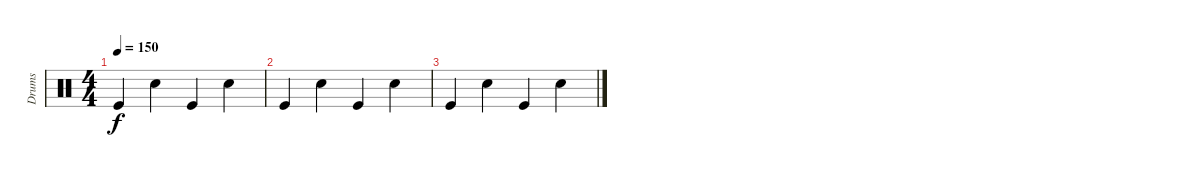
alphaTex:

\track ("Drums" "Drums") {instrument percussion}
\staff {score}
\articulation defaults
\ts (4 4)
\tempo 150
\clef neutral
\ks c "Kick (hit)".4{dy f} "Snare (hit) 2".4 "Kick (hit)".4 "Snare (hit) 2".4
|
"Kick (hit)".4 "Snare (hit) 2".4 "Kick (hit)".4 "Snare (hit) 2".4 |
"Kick (hit)".4 "Snare (hit) 2".4 "Kick (hit)".4 "Snare (hit) 2".4
